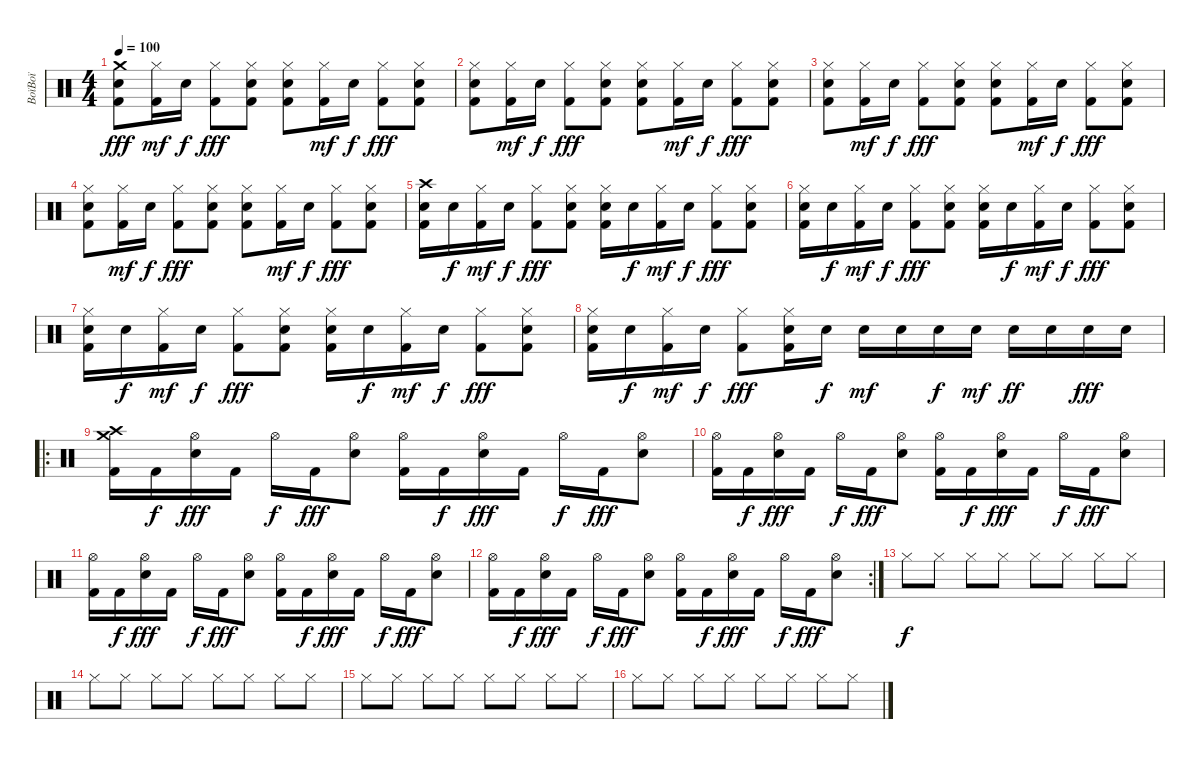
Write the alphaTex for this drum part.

\track ("BoïBoï" "BoïBoï") {instrument percussion}
\staff {score}
\articulation defaults
\ts (4 4)
\tempo 100
\clef neutral
\ks c
("Crash medium (hit)" "Electric Snare (hit)" "Kick (hit) 2").8{dy fff} ("Hi-Hat (closed)" "Kick (hit) 2").16{dy mf} "Electric Snare (hit)".16{dy f} ("Hi-Hat (closed)" "Kick (hit) 2").8{dy fff} ("Hi-Hat (closed)" "Electric Snare (hit)" "Kick (hit) 2").8 ("Hi-Hat (closed)" "Electric Snare (hit)" "Kick (hit) 2").8 ("Hi-Hat (closed)" "Kick (hit) 2").16{dy mf} "Electric Snare (hit)".16{dy f} ("Hi-Hat (closed)" "Kick (hit) 2").8{dy fff} ("Hi-Hat (closed)" "Electric Snare (hit)" "Kick (hit) 2").8 |
("Hi-Hat (closed)" "Electric Snare (hit)" "Kick (hit) 2").8 ("Hi-Hat (closed)" "Kick (hit) 2").16{dy mf} "Electric Snare (hit)".16{dy f} ("Hi-Hat (closed)" "Kick (hit) 2").8{dy fff} ("Hi-Hat (closed)" "Electric Snare (hit)" "Kick (hit) 2").8 ("Hi-Hat (closed)" "Electric Snare (hit)" "Kick (hit) 2").8 ("Hi-Hat (closed)" "Kick (hit) 2").16{dy mf} "Electric Snare (hit)".16{dy f} ("Hi-Hat (closed)" "Kick (hit) 2").8{dy fff} ("Hi-Hat (closed)" "Electric Snare (hit)" "Kick (hit) 2").8 |
("Hi-Hat (closed)" "Electric Snare (hit)" "Kick (hit) 2").8 ("Hi-Hat (closed)" "Kick (hit) 2").16{dy mf} "Electric Snare (hit)".16{dy f} ("Hi-Hat (closed)" "Kick (hit) 2").8{dy fff} ("Hi-Hat (closed)" "Electric Snare (hit)" "Kick (hit) 2").8 ("Hi-Hat (closed)" "Electric Snare (hit)" "Kick (hit) 2").8 ("Hi-Hat (closed)" "Kick (hit) 2").16{dy mf} "Electric Snare (hit)".16{dy f} ("Hi-Hat (closed)" "Kick (hit) 2").8{dy fff} ("Hi-Hat (closed)" "Electric Snare (hit)" "Kick (hit) 2").8 |
("Hi-Hat (closed)" "Electric Snare (hit)" "Kick (hit) 2").8 ("Hi-Hat (closed)" "Kick (hit) 2").16{dy mf} "Electric Snare (hit)".16{dy f} ("Hi-Hat (closed)" "Kick (hit) 2").8{dy fff} ("Hi-Hat (closed)" "Electric Snare (hit)" "Kick (hit) 2").8 ("Hi-Hat (closed)" "Electric Snare (hit)" "Kick (hit) 2").8 ("Hi-Hat (closed)" "Kick (hit) 2").16{dy mf} "Electric Snare (hit)".16{dy f} ("Hi-Hat (closed)" "Kick (hit) 2").8{dy fff} ("Hi-Hat (closed)" "Electric Snare (hit)" "Kick (hit) 2").8 |
("Crash high (hit)" "Electric Snare (hit)" "Kick (hit) 2").16 "Electric Snare (hit)".16{dy f} ("Hi-Hat (closed)" "Kick (hit) 2").16{dy mf} "Electric Snare (hit)".16{dy f} ("Hi-Hat (closed)" "Kick (hit) 2").8{dy fff} ("Hi-Hat (closed)" "Electric Snare (hit)" "Kick (hit) 2").8 ("Hi-Hat (closed)" "Electric Snare (hit)" "Kick (hit) 2").16 "Electric Snare (hit)".16{dy f} ("Hi-Hat (closed)" "Kick (hit) 2").16{dy mf} "Electric Snare (hit)".16{dy f} ("Hi-Hat (closed)" "Kick (hit) 2").8{dy fff} ("Hi-Hat (closed)" "Electric Snare (hit)" "Kick (hit) 2").8 |
("Hi-Hat (closed)" "Electric Snare (hit)" "Kick (hit) 2").16 "Electric Snare (hit)".16{dy f} ("Hi-Hat (closed)" "Kick (hit) 2").16{dy mf} "Electric Snare (hit)".16{dy f} ("Hi-Hat (closed)" "Kick (hit) 2").8{dy fff} ("Hi-Hat (closed)" "Electric Snare (hit)" "Kick (hit) 2").8 ("Hi-Hat (closed)" "Electric Snare (hit)" "Kick (hit) 2").16 "Electric Snare (hit)".16{dy f} ("Hi-Hat (closed)" "Kick (hit) 2").16{dy mf} "Electric Snare (hit)".16{dy f} ("Hi-Hat (closed)" "Kick (hit) 2").8{dy fff} ("Hi-Hat (closed)" "Electric Snare (hit)" "Kick (hit) 2").8 |
("Hi-Hat (closed)" "Electric Snare (hit)" "Kick (hit) 2").16 "Electric Snare (hit)".16{dy f} ("Hi-Hat (closed)" "Kick (hit) 2").16{dy mf} "Electric Snare (hit)".16{dy f} ("Hi-Hat (closed)" "Kick (hit) 2").8{dy fff} ("Hi-Hat (closed)" "Electric Snare (hit)" "Kick (hit) 2").8 ("Hi-Hat (closed)" "Electric Snare (hit)" "Kick (hit) 2").16 "Electric Snare (hit)".16{dy f} ("Hi-Hat (closed)" "Kick (hit) 2").16{dy mf} "Electric Snare (hit)".16{dy f} ("Hi-Hat (closed)" "Kick (hit) 2").8{dy fff} ("Hi-Hat (closed)" "Electric Snare (hit)" "Kick (hit) 2").8 |
("Hi-Hat (closed)" "Electric Snare (hit)" "Kick (hit) 2").16 "Electric Snare (hit)".16{dy f} ("Hi-Hat (closed)" "Kick (hit) 2").16{dy mf} "Electric Snare (hit)".16{dy f} ("Hi-Hat (closed)" "Kick (hit) 2").8{dy fff} ("Hi-Hat (closed)" "Electric Snare (hit)" "Kick (hit) 2").16 "Electric Snare (hit)".16{dy f} "Electric Snare (hit)".16{dy mf} "Electric Snare (hit)".16 "Electric Snare (hit)".16{dy f} "Electric Snare (hit)".16{dy mf} "Electric Snare (hit)".16{dy ff} "Electric Snare (hit)".16 "Electric Snare (hit)".16{dy fff} "Electric Snare (hit)".16 |
\ro
("Crash medium (hit)" "Crash high (hit)" "Kick (hit) 2").16 "Kick (hit) 2".16{dy f} ("Hi-Hat (open)" "Electric Snare (hit)").16{dy fff} "Kick (hit) 2".16 "Hi-Hat (open)".16{dy f} "Kick (hit) 2".16{dy fff} ("Hi-Hat (open)" "Electric Snare (hit)").8 ("Hi-Hat (open)" "Kick (hit) 2").16 "Kick (hit) 2".16{dy f} ("Hi-Hat (open)" "Electric Snare (hit)").16{dy fff} "Kick (hit) 2".16 "Hi-Hat (open)".16{dy f} "Kick (hit) 2".16{dy fff} ("Hi-Hat (open)" "Electric Snare (hit)").8 |
("Hi-Hat (open)" "Kick (hit) 2").16 "Kick (hit) 2".16{dy f} ("Hi-Hat (open)" "Electric Snare (hit)").16{dy fff} "Kick (hit) 2".16 "Hi-Hat (open)".16{dy f} "Kick (hit) 2".16{dy fff} ("Hi-Hat (open)" "Electric Snare (hit)").8 ("Hi-Hat (open)" "Kick (hit) 2").16 "Kick (hit) 2".16{dy f} ("Hi-Hat (open)" "Electric Snare (hit)").16{dy fff} "Kick (hit) 2".16 "Hi-Hat (open)".16{dy f} "Kick (hit) 2".16{dy fff} ("Hi-Hat (open)" "Electric Snare (hit)").8 |
("Hi-Hat (open)" "Kick (hit) 2").16 "Kick (hit) 2".16{dy f} ("Hi-Hat (open)" "Electric Snare (hit)").16{dy fff} "Kick (hit) 2".16 "Hi-Hat (open)".16{dy f} "Kick (hit) 2".16{dy fff} ("Hi-Hat (open)" "Electric Snare (hit)").8 ("Hi-Hat (open)" "Kick (hit) 2").16 "Kick (hit) 2".16{dy f} ("Hi-Hat (open)" "Electric Snare (hit)").16{dy fff} "Kick (hit) 2".16 "Hi-Hat (open)".16{dy f} "Kick (hit) 2".16{dy fff} ("Hi-Hat (open)" "Electric Snare (hit)").8 |
\rc 2
("Hi-Hat (open)" "Kick (hit) 2").16 "Kick (hit) 2".16{dy f} ("Hi-Hat (open)" "Electric Snare (hit)").16{dy fff} "Kick (hit) 2".16 "Hi-Hat (open)".16{dy f} "Kick (hit) 2".16{dy fff} ("Hi-Hat (open)" "Electric Snare (hit)").8 ("Hi-Hat (open)" "Kick (hit) 2").16 "Kick (hit) 2".16{dy f} ("Hi-Hat (open)" "Electric Snare (hit)").16{dy fff} "Kick (hit) 2".16 "Hi-Hat (open)".16{dy f} "Kick (hit) 2".16{dy fff} ("Hi-Hat (open)" "Electric Snare (hit)").8 |
"Hi-Hat (closed)".8{dy f} "Hi-Hat (closed)".8 "Hi-Hat (closed)".8 "Hi-Hat (closed)".8 "Hi-Hat (closed)".8 "Hi-Hat (closed)".8 "Hi-Hat (closed)".8 "Hi-Hat (closed)".8 |
"Hi-Hat (closed)".8 "Hi-Hat (closed)".8 "Hi-Hat (closed)".8 "Hi-Hat (closed)".8 "Hi-Hat (closed)".8 "Hi-Hat (closed)".8 "Hi-Hat (closed)".8 "Hi-Hat (closed)".8 |
"Hi-Hat (closed)".8 "Hi-Hat (closed)".8 "Hi-Hat (closed)".8 "Hi-Hat (closed)".8 "Hi-Hat (closed)".8 "Hi-Hat (closed)".8 "Hi-Hat (closed)".8 "Hi-Hat (closed)".8 |
"Hi-Hat (closed)".8 "Hi-Hat (closed)".8 "Hi-Hat (closed)".8 "Hi-Hat (closed)".8 "Hi-Hat (closed)".8 "Hi-Hat (closed)".8 "Hi-Hat (closed)".8 "Hi-Hat (closed)".8
